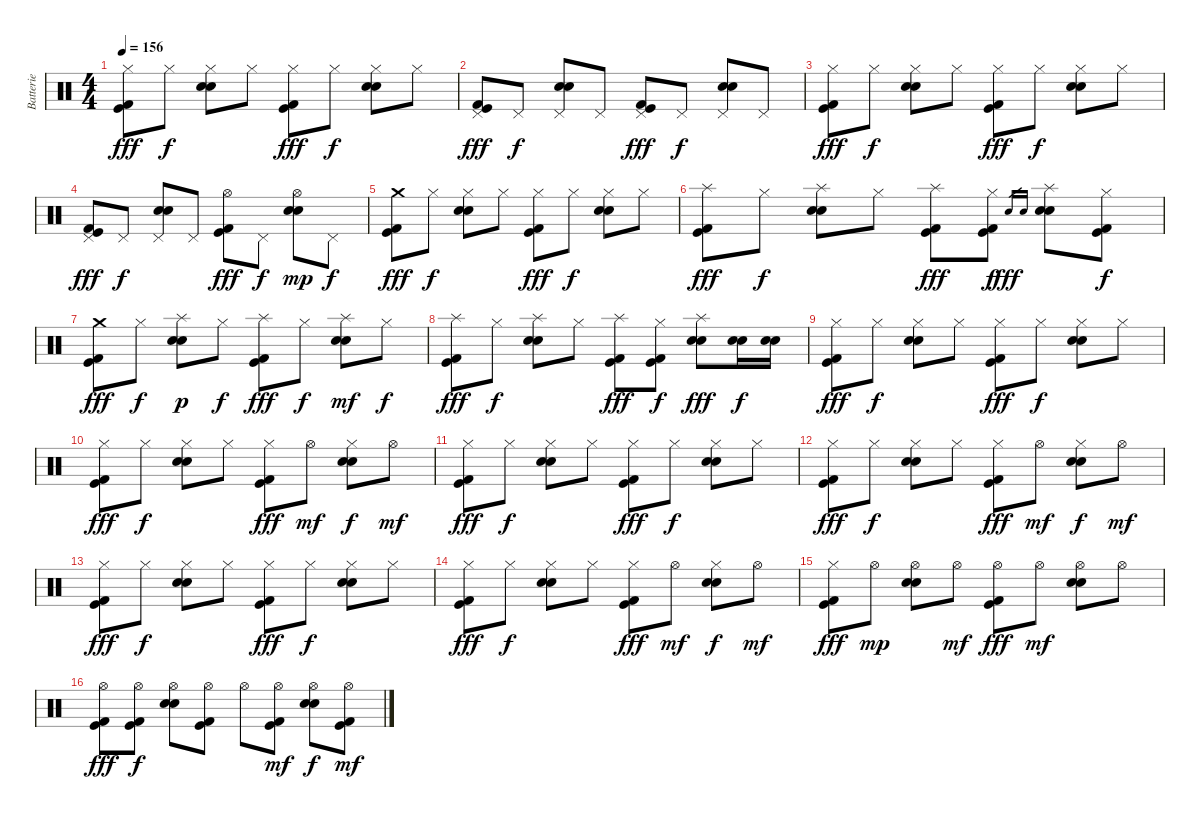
\track ("Batterie" "Batterie") {instrument percussion}
\staff {score}
\articulation defaults
\ts (4 4)
\tempo 156
\clef neutral
\ks c
("Hi-Hat (closed)" "Kick (hit)" "Kick (hit) 2").8{dy fff} "Hi-Hat (closed)".8{dy f} ("Hi-Hat (closed)" "Snare (hit) 2" "Electric Snare (hit)").8 "Hi-Hat (closed)".8 ("Hi-Hat (closed)" "Kick (hit)" "Kick (hit) 2").8{dy fff} "Hi-Hat (closed)".8{dy f} ("Hi-Hat (closed)" "Snare (hit) 2" "Electric Snare (hit)").8 "Hi-Hat (closed)".8 |
("Pedal Hi-Hat (hit)" "Kick (hit)" "Kick (hit) 2").8{dy fff} "Pedal Hi-Hat (hit)".8{dy f} ("Pedal Hi-Hat (hit)" "Snare (hit) 2" "Electric Snare (hit)").8 "Pedal Hi-Hat (hit)".8 ("Pedal Hi-Hat (hit)" "Kick (hit)" "Kick (hit) 2").8{dy fff} "Pedal Hi-Hat (hit)".8{dy f} ("Pedal Hi-Hat (hit)" "Snare (hit) 2" "Electric Snare (hit)").8 "Pedal Hi-Hat (hit)".8 |
("Hi-Hat (closed)" "Kick (hit)" "Kick (hit) 2").8{dy fff} "Hi-Hat (closed)".8{dy f} ("Hi-Hat (closed)" "Snare (hit) 2" "Electric Snare (hit)").8 "Hi-Hat (closed)".8 ("Hi-Hat (closed)" "Kick (hit)" "Kick (hit) 2").8{dy fff} "Hi-Hat (closed)".8{dy f} ("Hi-Hat (closed)" "Snare (hit) 2" "Electric Snare (hit)").8 "Hi-Hat (closed)".8 |
("Pedal Hi-Hat (hit)" "Kick (hit)" "Kick (hit) 2").8{dy fff} "Pedal Hi-Hat (hit)".8{dy f} ("Pedal Hi-Hat (hit)" "Snare (hit) 2" "Electric Snare (hit)").8 "Pedal Hi-Hat (hit)".8 ("Hi-Hat (open)" "Kick (hit)" "Kick (hit) 2").8{dy fff} "Pedal Hi-Hat (hit)".8{dy f} ("Hi-Hat (open)" "Snare (hit) 2" "Electric Snare (hit)").8{dy mp} "Pedal Hi-Hat (hit)".8{dy f} |
("Crash medium (hit)" "Kick (hit)" "Kick (hit) 2").8{dy fff} "Hi-Hat (closed)".8{dy f} ("Hi-Hat (closed)" "Snare (hit) 2" "Electric Snare (hit)").8 "Hi-Hat (closed)".8 ("Hi-Hat (closed)" "Kick (hit)" "Kick (hit) 2").8{dy fff} "Hi-Hat (closed)".8{dy f} ("Hi-Hat (closed)" "Snare (hit) 2" "Electric Snare (hit)").8 "Hi-Hat (closed)".8 |
("Splash (hit)" "Kick (hit)" "Kick (hit) 2").8{dy fff} "Hi-Hat (closed)".8{dy f} ("Splash (hit)" "Snare (hit) 2" "Electric Snare (hit)").8 "Hi-Hat (closed)".8 ("Splash (hit)" "Kick (hit)" "Kick (hit) 2").8{dy fff} ("Hi-Hat (closed)" "Kick (hit)" "Kick (hit) 2").8{dy f} "Snare (hit) 2".16{gr dy fff} "Electric Snare (hit)".16{gr} ("Splash (hit)" "Snare (hit) 2" "Electric Snare (hit)").8 ("Hi-Hat (closed)" "Kick (hit)" "Kick (hit) 2").8{dy f} |
("Crash medium (hit)" "Kick (hit)" "Kick (hit) 2").8{dy fff} "Hi-Hat (closed)".8{dy f} ("Splash (hit)" "Snare (hit) 2" "Electric Snare (hit)").8{dy p} "Hi-Hat (closed)".8{dy f} ("Splash (hit)" "Kick (hit)" "Kick (hit) 2").8{dy fff} "Hi-Hat (closed)".8{dy f} ("Splash (hit)" "Snare (hit) 2" "Electric Snare (hit)").8{dy mf} "Hi-Hat (closed)".8{dy f} |
("Splash (hit)" "Kick (hit)" "Kick (hit) 2").8{dy fff} "Hi-Hat (closed)".8{dy f} ("Splash (hit)" "Snare (hit) 2" "Electric Snare (hit)").8 "Hi-Hat (closed)".8 ("Splash (hit)" "Kick (hit)" "Kick (hit) 2").8{dy fff} ("Hi-Hat (closed)" "Kick (hit)" "Kick (hit) 2").8{dy f} ("Splash (hit)" "Snare (hit) 2" "Electric Snare (hit)").8{dy fff} ("Snare (hit) 2" "Electric Snare (hit)").16{dy f} ("Snare (hit) 2" "Electric Snare (hit)").16 |
("Hi-Hat (closed)" "Kick (hit)" "Kick (hit) 2").8{dy fff} "Hi-Hat (closed)".8{dy f} ("Hi-Hat (closed)" "Snare (hit) 2" "Electric Snare (hit)").8 "Hi-Hat (closed)".8 ("Hi-Hat (closed)" "Kick (hit)" "Kick (hit) 2").8{dy fff} "Hi-Hat (closed)".8{dy f} ("Hi-Hat (closed)" "Snare (hit) 2" "Electric Snare (hit)").8 "Hi-Hat (closed)".8 |
("Hi-Hat (closed)" "Kick (hit)" "Kick (hit) 2").8{dy fff} "Hi-Hat (closed)".8{dy f} ("Hi-Hat (closed)" "Snare (hit) 2" "Electric Snare (hit)").8 "Hi-Hat (closed)".8 ("Hi-Hat (closed)" "Kick (hit)" "Kick (hit) 2").8{dy fff} "Hi-Hat (open)".8{dy mf} ("Hi-Hat (closed)" "Snare (hit) 2" "Electric Snare (hit)").8{dy f} "Hi-Hat (open)".8{dy mf} |
("Hi-Hat (closed)" "Kick (hit)" "Kick (hit) 2").8{dy fff} "Hi-Hat (closed)".8{dy f} ("Hi-Hat (closed)" "Snare (hit) 2" "Electric Snare (hit)").8 "Hi-Hat (closed)".8 ("Hi-Hat (closed)" "Kick (hit)" "Kick (hit) 2").8{dy fff} "Hi-Hat (closed)".8{dy f} ("Hi-Hat (closed)" "Snare (hit) 2" "Electric Snare (hit)").8 "Hi-Hat (closed)".8 |
("Hi-Hat (closed)" "Kick (hit)" "Kick (hit) 2").8{dy fff} "Hi-Hat (closed)".8{dy f} ("Hi-Hat (closed)" "Snare (hit) 2" "Electric Snare (hit)").8 "Hi-Hat (closed)".8 ("Hi-Hat (closed)" "Kick (hit)" "Kick (hit) 2").8{dy fff} "Hi-Hat (open)".8{dy mf} ("Hi-Hat (closed)" "Snare (hit) 2" "Electric Snare (hit)").8{dy f} "Hi-Hat (open)".8{dy mf} |
("Hi-Hat (closed)" "Kick (hit)" "Kick (hit) 2").8{dy fff} "Hi-Hat (closed)".8{dy f} ("Hi-Hat (closed)" "Snare (hit) 2" "Electric Snare (hit)").8 "Hi-Hat (closed)".8 ("Hi-Hat (closed)" "Kick (hit)" "Kick (hit) 2").8{dy fff} "Hi-Hat (closed)".8{dy f} ("Hi-Hat (closed)" "Snare (hit) 2" "Electric Snare (hit)").8 "Hi-Hat (closed)".8 |
("Hi-Hat (closed)" "Kick (hit)" "Kick (hit) 2").8{dy fff} "Hi-Hat (closed)".8{dy f} ("Hi-Hat (closed)" "Snare (hit) 2" "Electric Snare (hit)").8 "Hi-Hat (closed)".8 ("Hi-Hat (closed)" "Kick (hit)" "Kick (hit) 2").8{dy fff} "Hi-Hat (open)".8{dy mf} ("Hi-Hat (closed)" "Snare (hit) 2" "Electric Snare (hit)").8{dy f} "Hi-Hat (open)".8{dy mf} |
("Hi-Hat (closed)" "Kick (hit)" "Kick (hit) 2").8{dy fff} "Hi-Hat (open)".8{dy mp} ("Hi-Hat (open)" "Snare (hit) 2" "Electric Snare (hit)").8 "Hi-Hat (open)".8{dy mf} ("Hi-Hat (open)" "Kick (hit)" "Kick (hit) 2").8{dy fff} "Hi-Hat (open)".8{dy mf} ("Hi-Hat (open)" "Snare (hit) 2" "Electric Snare (hit)").8 "Hi-Hat (open)".8 |
("Hi-Hat (open)" "Kick (hit)" "Kick (hit) 2").8{dy fff} ("Hi-Hat (open)" "Kick (hit)" "Kick (hit) 2").8{dy f} ("Hi-Hat (open)" "Snare (hit) 2" "Electric Snare (hit)").8 ("Hi-Hat (open)" "Kick (hit)" "Kick (hit) 2").8 "Hi-Hat (open)".8 ("Hi-Hat (open)" "Kick (hit)" "Kick (hit) 2").8{dy mf} ("Hi-Hat (open)" "Snare (hit) 2" "Electric Snare (hit)").8{dy f} ("Hi-Hat (open)" "Kick (hit)" "Kick (hit) 2").8{dy mf}
